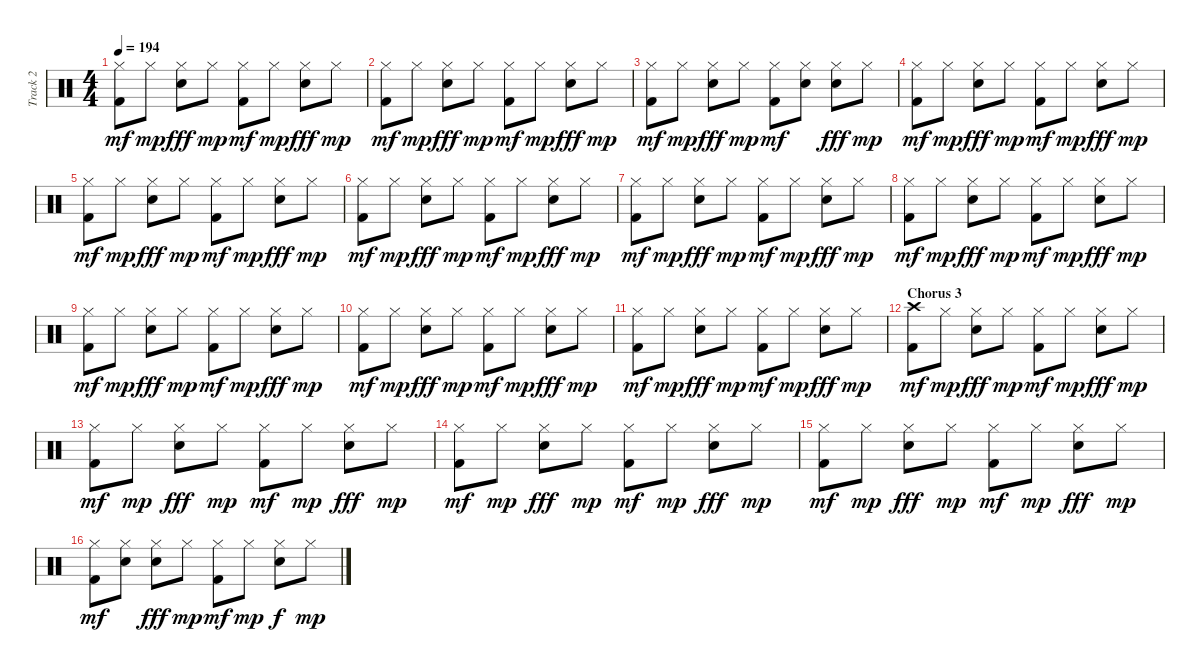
\track ("Track 2" "Track 2") {instrument percussion}
\staff {score}
\articulation defaults
\ts (4 4)
\tempo 194
\clef neutral
\ks c
("Hi-Hat (closed)" "Kick (hit) 2").8{dy mf} "Hi-Hat (closed)".8{dy mp} ("Hi-Hat (closed)" "Snare (hit)").8{dy fff} "Hi-Hat (closed)".8{dy mp} ("Hi-Hat (closed)" "Kick (hit) 2").8{dy mf} "Hi-Hat (closed)".8{dy mp} ("Hi-Hat (closed)" "Snare (hit)").8{dy fff} "Hi-Hat (closed)".8{dy mp} |
("Hi-Hat (closed)" "Kick (hit) 2").8{dy mf} "Hi-Hat (closed)".8{dy mp} ("Hi-Hat (closed)" "Snare (hit)").8{dy fff} "Hi-Hat (closed)".8{dy mp} ("Hi-Hat (closed)" "Kick (hit) 2").8{dy mf} "Hi-Hat (closed)".8{dy mp} ("Hi-Hat (closed)" "Snare (hit)").8{dy fff} "Hi-Hat (closed)".8{dy mp} |
("Hi-Hat (closed)" "Kick (hit) 2").8{dy mf} "Hi-Hat (closed)".8{dy mp} ("Hi-Hat (closed)" "Snare (hit)").8{dy fff} "Hi-Hat (closed)".8{dy mp} ("Hi-Hat (closed)" "Kick (hit) 2").8{dy mf} ("Hi-Hat (closed)" "Snare (hit)").8 ("Hi-Hat (closed)" "Snare (hit)").8{dy fff} "Hi-Hat (closed)".8{dy mp} |
("Hi-Hat (closed)" "Kick (hit) 2").8{dy mf} "Hi-Hat (closed)".8{dy mp} ("Hi-Hat (closed)" "Snare (hit)").8{dy fff} "Hi-Hat (closed)".8{dy mp} ("Hi-Hat (closed)" "Kick (hit) 2").8{dy mf} "Hi-Hat (closed)".8{dy mp} ("Hi-Hat (closed)" "Snare (hit)").8{dy fff} "Hi-Hat (closed)".8{dy mp} |
("Hi-Hat (closed)" "Kick (hit) 2").8{dy mf} "Hi-Hat (closed)".8{dy mp} ("Hi-Hat (closed)" "Snare (hit)").8{dy fff} "Hi-Hat (closed)".8{dy mp} ("Hi-Hat (closed)" "Kick (hit) 2").8{dy mf} "Hi-Hat (closed)".8{dy mp} ("Hi-Hat (closed)" "Snare (hit)").8{dy fff} "Hi-Hat (closed)".8{dy mp} |
("Hi-Hat (closed)" "Kick (hit) 2").8{dy mf} "Hi-Hat (closed)".8{dy mp} ("Hi-Hat (closed)" "Snare (hit)").8{dy fff} "Hi-Hat (closed)".8{dy mp} ("Hi-Hat (closed)" "Kick (hit) 2").8{dy mf} "Hi-Hat (closed)".8{dy mp} ("Hi-Hat (closed)" "Snare (hit)").8{dy fff} "Hi-Hat (closed)".8{dy mp} |
("Hi-Hat (closed)" "Kick (hit) 2").8{dy mf} "Hi-Hat (closed)".8{dy mp} ("Hi-Hat (closed)" "Snare (hit)").8{dy fff} "Hi-Hat (closed)".8{dy mp} ("Hi-Hat (closed)" "Kick (hit) 2").8{dy mf} "Hi-Hat (closed)".8{dy mp} ("Hi-Hat (closed)" "Snare (hit)").8{dy fff} "Hi-Hat (closed)".8{dy mp} |
("Hi-Hat (closed)" "Kick (hit) 2").8{dy mf} "Hi-Hat (closed)".8{dy mp} ("Hi-Hat (closed)" "Snare (hit)").8{dy fff} "Hi-Hat (closed)".8{dy mp} ("Hi-Hat (closed)" "Kick (hit) 2").8{dy mf} "Hi-Hat (closed)".8{dy mp} ("Hi-Hat (closed)" "Snare (hit)").8{dy fff} "Hi-Hat (closed)".8{dy mp} |
("Hi-Hat (closed)" "Kick (hit) 2").8{dy mf} "Hi-Hat (closed)".8{dy mp} ("Hi-Hat (closed)" "Snare (hit)").8{dy fff} "Hi-Hat (closed)".8{dy mp} ("Hi-Hat (closed)" "Kick (hit) 2").8{dy mf} "Hi-Hat (closed)".8{dy mp} ("Hi-Hat (closed)" "Snare (hit)").8{dy fff} "Hi-Hat (closed)".8{dy mp} |
("Hi-Hat (closed)" "Kick (hit) 2").8{dy mf} "Hi-Hat (closed)".8{dy mp} ("Hi-Hat (closed)" "Snare (hit)").8{dy fff} "Hi-Hat (closed)".8{dy mp} ("Hi-Hat (closed)" "Kick (hit) 2").8{dy mf} "Hi-Hat (closed)".8{dy mp} ("Hi-Hat (closed)" "Snare (hit)").8{dy fff} "Hi-Hat (closed)".8{dy mp} |
("Hi-Hat (closed)" "Kick (hit) 2").8{dy mf} "Hi-Hat (closed)".8{dy mp} ("Hi-Hat (closed)" "Snare (hit)").8{dy fff} "Hi-Hat (closed)".8{dy mp} ("Hi-Hat (closed)" "Kick (hit) 2").8{dy mf} "Hi-Hat (closed)".8{dy mp} ("Hi-Hat (closed)" "Snare (hit)").8{dy fff} "Hi-Hat (closed)".8{dy mp} |
\section ("" "Chorus 3")
("Crash high (hit)" "Kick (hit) 2").8{dy mf} "Hi-Hat (closed)".8{dy mp} ("Hi-Hat (closed)" "Snare (hit)").8{dy fff} "Hi-Hat (closed)".8{dy mp} ("Hi-Hat (closed)" "Kick (hit) 2").8{dy mf} "Hi-Hat (closed)".8{dy mp} ("Hi-Hat (closed)" "Snare (hit)").8{dy fff} "Hi-Hat (closed)".8{dy mp} |
("Hi-Hat (closed)" "Kick (hit) 2").8{dy mf} "Hi-Hat (closed)".8{dy mp} ("Hi-Hat (closed)" "Snare (hit)").8{dy fff} "Hi-Hat (closed)".8{dy mp} ("Hi-Hat (closed)" "Kick (hit) 2").8{dy mf} "Hi-Hat (closed)".8{dy mp} ("Hi-Hat (closed)" "Snare (hit)").8{dy fff} "Hi-Hat (closed)".8{dy mp} |
("Hi-Hat (closed)" "Kick (hit) 2").8{dy mf} "Hi-Hat (closed)".8{dy mp} ("Hi-Hat (closed)" "Snare (hit)").8{dy fff} "Hi-Hat (closed)".8{dy mp} ("Hi-Hat (closed)" "Kick (hit) 2").8{dy mf} "Hi-Hat (closed)".8{dy mp} ("Hi-Hat (closed)" "Snare (hit)").8{dy fff} "Hi-Hat (closed)".8{dy mp} |
("Hi-Hat (closed)" "Kick (hit) 2").8{dy mf} "Hi-Hat (closed)".8{dy mp} ("Hi-Hat (closed)" "Snare (hit)").8{dy fff} "Hi-Hat (closed)".8{dy mp} ("Hi-Hat (closed)" "Kick (hit) 2").8{dy mf} "Hi-Hat (closed)".8{dy mp} ("Hi-Hat (closed)" "Snare (hit)").8{dy fff} "Hi-Hat (closed)".8{dy mp} |
("Hi-Hat (closed)" "Kick (hit) 2").8{dy mf} ("Hi-Hat (closed)" "Snare (hit)").8 ("Hi-Hat (closed)" "Snare (hit)").8{dy fff} "Hi-Hat (closed)".8{dy mp} ("Hi-Hat (closed)" "Kick (hit) 2").8{dy mf} "Hi-Hat (closed)".8{dy mp} ("Hi-Hat (closed)" "Snare (hit)").8{dy f} "Hi-Hat (closed)".8{dy mp}
